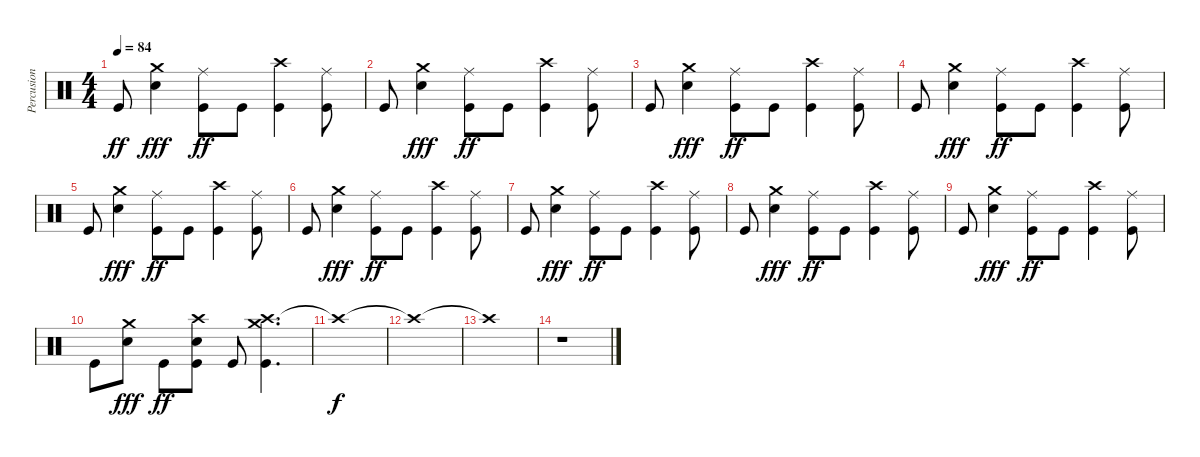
\track ("Percusion" "Percusion") {instrument percussion}
\staff {score}
\articulation defaults
\ts (4 4)
\tempo 84
\clef neutral
\ks c "Kick (hit)".8{dy ff}
("Crash medium (hit)" "Electric Snare (hit)").4{dy fff} ("Ride (middle)" "Kick (hit)").8{dy ff beam merge} "Kick (hit)".8 ("Crash high (hit)" "Kick (hit)").4 ("Ride (middle)" "Kick (hit)").8 |
"Kick (hit)".8 ("Crash medium (hit)" "Electric Snare (hit)").4{dy fff} ("Ride (middle)" "Kick (hit)").8{dy ff beam merge} "Kick (hit)".8 ("Crash high (hit)" "Kick (hit)").4 ("Ride (middle)" "Kick (hit)").8 |
"Kick (hit)".8 ("Crash medium (hit)" "Electric Snare (hit)").4{dy fff} ("Ride (middle)" "Kick (hit)").8{dy ff beam merge} "Kick (hit)".8 ("Crash high (hit)" "Kick (hit)").4 ("Ride (middle)" "Kick (hit)").8 |
"Kick (hit)".8 ("Crash medium (hit)" "Electric Snare (hit)").4{dy fff} ("Ride (middle)" "Kick (hit)").8{dy ff beam merge} "Kick (hit)".8 ("Crash high (hit)" "Kick (hit)").4 ("Ride (middle)" "Kick (hit)").8 |
"Kick (hit)".8 ("Crash medium (hit)" "Electric Snare (hit)").4{dy fff} ("Ride (middle)" "Kick (hit)").8{dy ff beam merge} "Kick (hit)".8 ("Crash high (hit)" "Kick (hit)").4 ("Ride (middle)" "Kick (hit)").8 |
"Kick (hit)".8 ("Crash medium (hit)" "Electric Snare (hit)").4{dy fff} ("Ride (middle)" "Kick (hit)").8{dy ff beam merge} "Kick (hit)".8 ("Crash high (hit)" "Kick (hit)").4 ("Ride (middle)" "Kick (hit)").8 |
"Kick (hit)".8 ("Crash medium (hit)" "Electric Snare (hit)").4{dy fff} ("Ride (middle)" "Kick (hit)").8{dy ff beam merge} "Kick (hit)".8 ("Crash high (hit)" "Kick (hit)").4 ("Ride (middle)" "Kick (hit)").8 |
"Kick (hit)".8 ("Crash medium (hit)" "Electric Snare (hit)").4{dy fff} ("Ride (middle)" "Kick (hit)").8{dy ff beam merge} "Kick (hit)".8 ("Crash high (hit)" "Kick (hit)").4 ("Ride (middle)" "Kick (hit)").8 |
"Kick (hit)".8 ("Crash medium (hit)" "Electric Snare (hit)").4{dy fff} ("Ride (middle)" "Kick (hit)").8{dy ff beam merge} "Kick (hit)".8 ("Crash high (hit)" "Kick (hit)").4 ("Ride (middle)" "Kick (hit)").8 |
"Kick (hit)".8 ("Crash medium (hit)" "Electric Snare (hit)").8{dy fff} "Kick (hit)".8{dy ff} ("Crash high (hit)" "Electric Snare (hit)" "Kick (hit)").8 "Kick (hit)".8 ("Crash high (hit)" "Crash medium (hit)" "Kick (hit)").4{d} |
"Crash high (hit)"{t}.1{dy f} |
"Crash high (hit)"{t}.1 |
"Crash high (hit)"{t}.1 |
r.1
